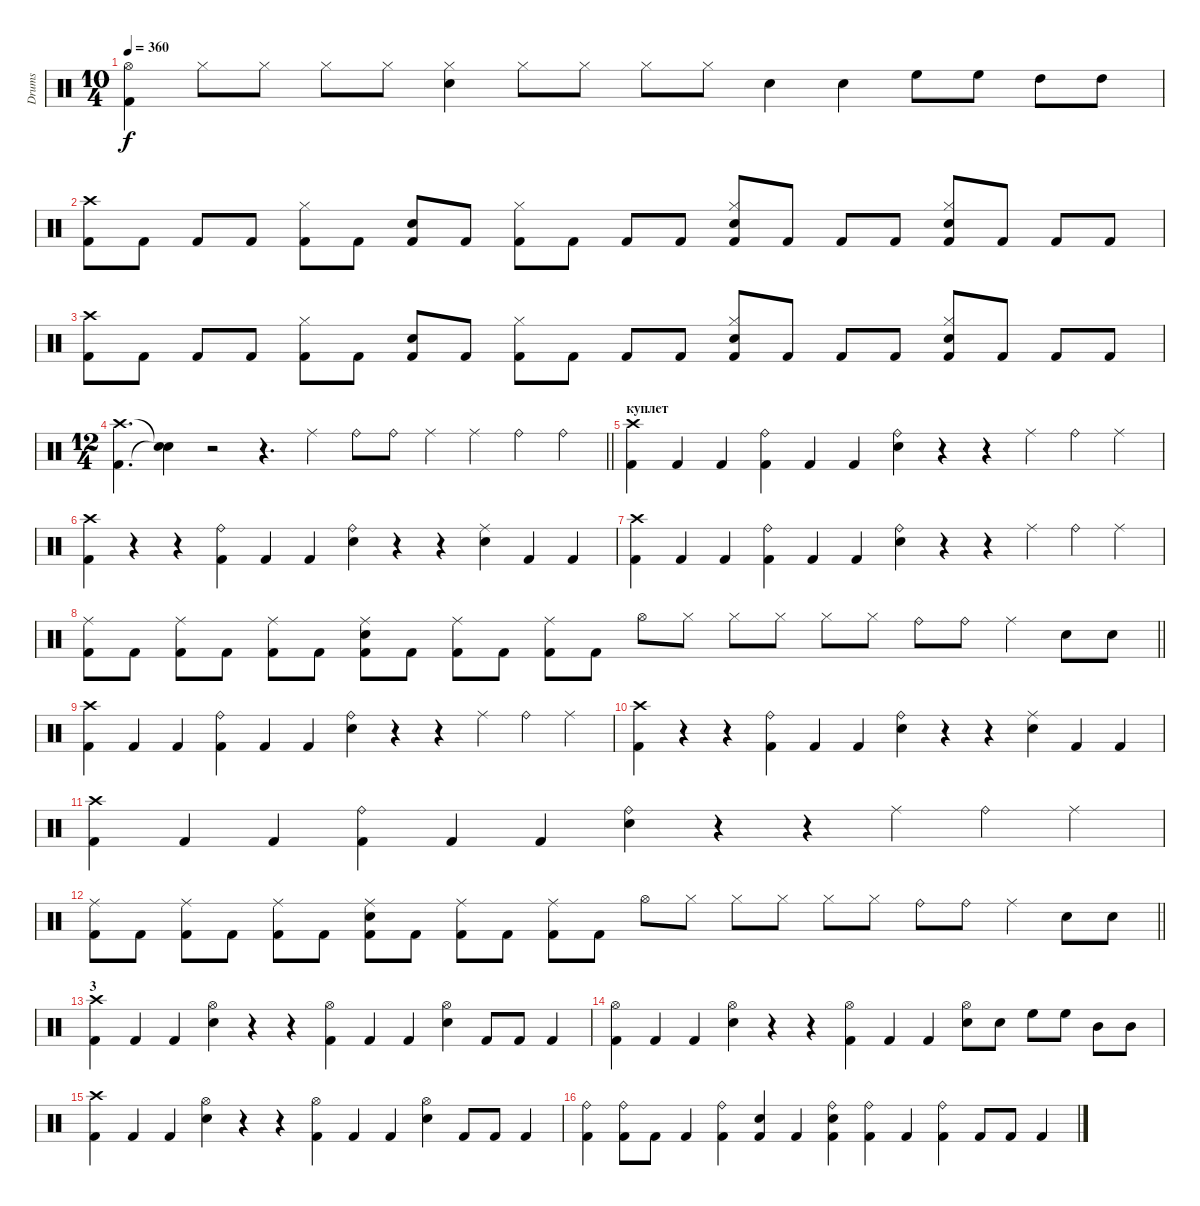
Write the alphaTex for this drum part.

\track ("Drums" "Drums") {mute instrument percussion}
\staff {score}
\articulation defaults
\ts (10 4)
\tempo 360
\clef neutral
\ks c
("Kick (hit) 2" "Hi-Hat (open)").4{dy f} "Hi-Hat (closed)".8 "Hi-Hat (closed)".8 "Hi-Hat (closed)".8 "Hi-Hat (closed)".8 ("Snare (hit) 2" "Hi-Hat (closed)").4 "Hi-Hat (closed)".8 "Hi-Hat (closed)".8 "Hi-Hat (closed)".8 "Hi-Hat (closed)".8 "Snare (hit) 2".4 "Snare (hit) 2".4 "High Floor Tom (hit)".8 "High Floor Tom (hit)".8 "High Tom (hit)".8 "High Tom (hit)".8 |
("Crash high (hit)" "Kick (hit) 2").8 "Kick (hit) 2".8 "Kick (hit) 2".8 "Kick (hit) 2".8 ("Hi-Hat (closed)" "Kick (hit) 2").8 "Kick (hit) 2".8 ("Snare (hit) 2" "Kick (hit) 2").8 "Kick (hit) 2".8 ("Hi-Hat (closed)" "Kick (hit) 2").8 "Kick (hit) 2".8 "Kick (hit) 2".8 "Kick (hit) 2".8 ("Hi-Hat (closed)" "Snare (hit) 2" "Kick (hit) 2").8 "Kick (hit) 2".8 "Kick (hit) 2".8 "Kick (hit) 2".8 ("Hi-Hat (closed)" "Snare (hit) 2" "Kick (hit) 2").8 "Kick (hit) 2".8 "Kick (hit) 2".8 "Kick (hit) 2".8 |
("Crash high (hit)" "Kick (hit) 2").8 "Kick (hit) 2".8 "Kick (hit) 2".8 "Kick (hit) 2".8 ("Hi-Hat (closed)" "Kick (hit) 2").8 "Kick (hit) 2".8 ("Snare (hit) 2" "Kick (hit) 2").8 "Kick (hit) 2".8 ("Hi-Hat (closed)" "Kick (hit) 2").8 "Kick (hit) 2".8 "Kick (hit) 2".8 "Kick (hit) 2".8 ("Hi-Hat (closed)" "Snare (hit) 2" "Kick (hit) 2").8 "Kick (hit) 2".8 "Kick (hit) 2".8 "Kick (hit) 2".8 ("Hi-Hat (closed)" "Snare (hit) 2" "Kick (hit) 2").8 "Kick (hit) 2".8 "Kick (hit) 2".8 "Kick (hit) 2".8 |
\ts (12 4)
\barLineRight lightlight
("Crash high (hit)" "Kick (hit) 2").4{d} ("Snare (hit)"{t} "Snare (hit)"{t}).4 r.2 r.4{d} "Ride (middle)".4 "Ride (bell)".8 "Ride (bell)".8 "Ride (middle)".4 "Ride (middle)".4 "Ride (bell)".4 "Ride (bell)".4 |
\section ("" "куплет")
("Kick (hit) 2" "Crash high (hit)").4 "Kick (hit) 2".4 "Kick (hit) 2".4 ("Kick (hit) 2" "Ride (bell)").4 "Kick (hit) 2".4 "Kick (hit) 2".4 ("Ride (bell)" "Snare (hit) 2").4 r.4 r.4 "Ride (middle)".4 "Ride (bell)".4 "Ride (middle)".4 |
("Kick (hit) 2" "Crash high (hit)").4 r.4 r.4 ("Kick (hit) 2" "Ride (bell)").4 "Kick (hit) 2".4 "Kick (hit) 2".4 ("Ride (bell)" "Snare (hit) 2").4 r.4 r.4 ("Snare (hit) 2" "Ride (middle)").4 "Kick (hit) 2".4 "Kick (hit) 2".4 |
("Kick (hit) 2" "Crash high (hit)").4 "Kick (hit) 2".4 "Kick (hit) 2".4 ("Kick (hit) 2" "Ride (bell)").4 "Kick (hit) 2".4 "Kick (hit) 2".4 ("Ride (bell)" "Snare (hit) 2").4 r.4 r.4 "Ride (middle)".4 "Ride (bell)".4 "Ride (middle)".4 |
\barLineRight lightlight
("Ride (middle)" "Kick (hit) 2").8 "Kick (hit) 2".8 ("Ride (middle)" "Kick (hit) 2").8 "Kick (hit) 2".8 ("Ride (middle)" "Kick (hit) 2").8 "Kick (hit) 2".8 ("Ride (middle)" "Kick (hit) 2" "Snare (hit) 2").8 "Kick (hit) 2".8 ("Ride (middle)" "Kick (hit) 2").8 "Kick (hit) 2".8 ("Ride (middle)" "Kick (hit) 2").8 "Kick (hit) 2".8 "Hi-Hat (open)".8 "Hi-Hat (closed)".8 "Hi-Hat (closed)".8 "Hi-Hat (closed)".8 "Hi-Hat (closed)".8 "Hi-Hat (closed)".8 "Ride (bell)".8 "Ride (bell)".8 "Ride (middle)".4 "Snare (hit) 2".8 "Snare (hit) 2".8 |
("Kick (hit) 2" "Crash high (hit)").4 "Kick (hit) 2".4 "Kick (hit) 2".4 ("Kick (hit) 2" "Ride (bell)").4 "Kick (hit) 2".4 "Kick (hit) 2".4 ("Ride (bell)" "Snare (hit) 2").4 r.4 r.4 "Ride (middle)".4 "Ride (bell)".4 "Ride (middle)".4 |
("Kick (hit) 2" "Crash high (hit)").4 r.4 r.4 ("Kick (hit) 2" "Ride (bell)").4 "Kick (hit) 2".4 "Kick (hit) 2".4 ("Ride (bell)" "Snare (hit) 2").4 r.4 r.4 ("Snare (hit) 2" "Ride (middle)").4 "Kick (hit) 2".4 "Kick (hit) 2".4 |
("Kick (hit) 2" "Crash high (hit)").4 "Kick (hit) 2".4 "Kick (hit) 2".4 ("Kick (hit) 2" "Ride (bell)").4 "Kick (hit) 2".4 "Kick (hit) 2".4 ("Ride (bell)" "Snare (hit) 2").4 r.4 r.4 "Ride (middle)".4 "Ride (bell)".4 "Ride (middle)".4 |
\barLineRight lightlight
("Ride (middle)" "Kick (hit) 2").8 "Kick (hit) 2".8 ("Ride (middle)" "Kick (hit) 2").8 "Kick (hit) 2".8 ("Ride (middle)" "Kick (hit) 2").8 "Kick (hit) 2".8 ("Ride (middle)" "Kick (hit) 2" "Snare (hit) 2").8 "Kick (hit) 2".8 ("Ride (middle)" "Kick (hit) 2").8 "Kick (hit) 2".8 ("Ride (middle)" "Kick (hit) 2").8 "Kick (hit) 2".8 "Hi-Hat (open)".8 "Hi-Hat (closed)".8 "Hi-Hat (closed)".8 "Hi-Hat (closed)".8 "Hi-Hat (closed)".8 "Hi-Hat (closed)".8 "Ride (bell)".8 "Ride (bell)".8 "Ride (middle)".4 "Snare (hit) 2".8 "Snare (hit) 2".8 |
\section ("" "3")
("Crash high (hit)" "Kick (hit) 2").4 "Kick (hit) 2".4 "Kick (hit) 2".4 ("Hi-Hat (open)" "Snare (hit) 2").4 r.4 r.4 ("Hi-Hat (open)" "Kick (hit) 2").4 "Kick (hit) 2".4 "Kick (hit) 2".4 ("Hi-Hat (open)" "Snare (hit) 2").4 "Kick (hit) 2".8 "Kick (hit) 2".8 "Kick (hit) 2".4 |
("Hi-Hat (open)" "Kick (hit) 2").4 "Kick (hit) 2".4 "Kick (hit) 2".4 ("Hi-Hat (open)" "Snare (hit) 2").4 r.4 r.4 ("Hi-Hat (open)" "Kick (hit) 2").4 "Kick (hit) 2".4 "Kick (hit) 2".4 ("Hi-Hat (open)" "Snare (hit) 2").8 "Snare (hit) 2".8 "High Floor Tom (hit)".8 "High Floor Tom (hit)".8 "Mid Tom (hit)".8 "Mid Tom (hit)".8 |
("Crash high (hit)" "Kick (hit) 2").4 "Kick (hit) 2".4 "Kick (hit) 2".4 ("Hi-Hat (open)" "Snare (hit) 2").4 r.4 r.4 ("Hi-Hat (open)" "Kick (hit) 2").4 "Kick (hit) 2".4 "Kick (hit) 2".4 ("Hi-Hat (open)" "Snare (hit) 2").4 "Kick (hit) 2".8 "Kick (hit) 2".8 "Kick (hit) 2".4 |
("Ride (bell)" "Kick (hit) 2").4 ("Ride (bell)" "Kick (hit) 2").8 "Kick (hit) 2".8 "Kick (hit) 2".4 ("Ride (bell)" "Kick (hit) 2").4 ("Snare (hit) 2" "Kick (hit) 2").4 "Kick (hit) 2".4 ("Ride (bell)" "Snare (hit) 2" "Kick (hit) 2").4 ("Ride (bell)" "Kick (hit) 2").4 "Kick (hit) 2".4 ("Ride (bell)" "Kick (hit) 2").4 "Kick (hit) 2".8 "Kick (hit) 2".8 "Kick (hit) 2".4
